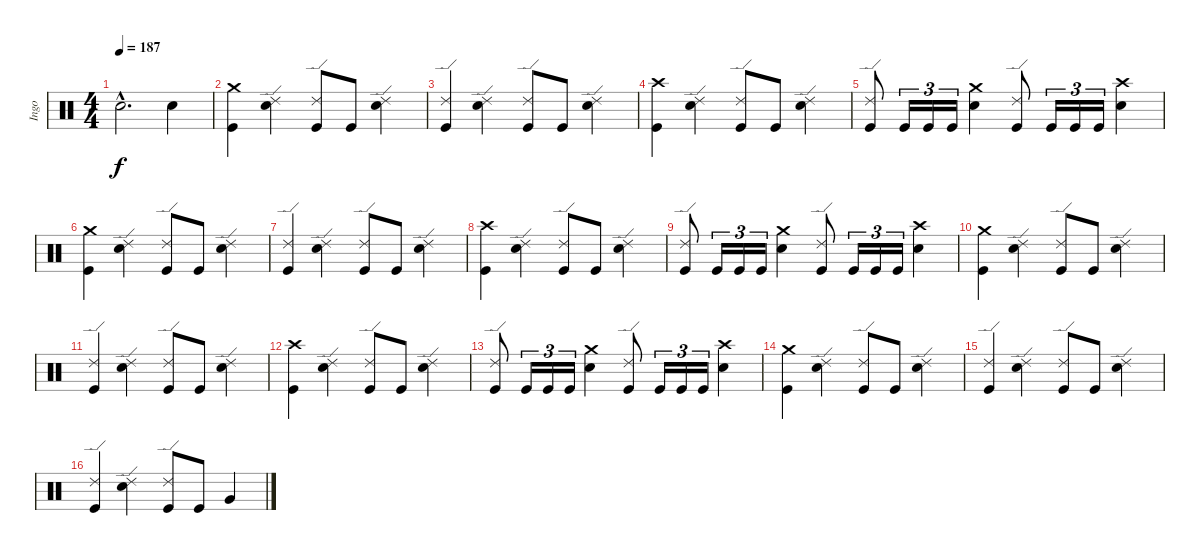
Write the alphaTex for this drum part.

\track ("Ingo" "Ingo") {instrument percussion}
\staff {score}
\articulation defaults
\ts (4 4)
\tempo 187
\clef neutral
\ks c "Snare (hit) 2"{hac}.2{d dy f} "Snare (hit) 2".4
|
("Crash medium (hit)" "Kick (hit)").4 ("Ride (edge) 2" "Snare (hit) 2").4 ("Ride (edge) 2" "Kick (hit)").8 "Kick (hit)".8 ("Ride (edge) 2" "Snare (hit) 2").4 |
("Ride (edge) 2" "Kick (hit)").4 ("Ride (edge) 2" "Snare (hit) 2").4 ("Ride (edge) 2" "Kick (hit)").8 "Kick (hit)".8 ("Ride (edge) 2" "Snare (hit) 2").4 |
("Crash high (hit)" "Kick (hit)").4 ("Ride (edge) 2" "Snare (hit) 2").4 ("Ride (edge) 2" "Kick (hit)").8 "Kick (hit)".8 ("Ride (edge) 2" "Snare (hit) 2").4 |
("Ride (edge) 2" "Kick (hit)").8 "Kick (hit)".16{tu (3 2)} "Kick (hit)".16{tu (3 2)} "Kick (hit)".16{tu (3 2)} ("Crash medium (hit)" "Snare (hit) 2").4 ("Ride (edge) 2" "Kick (hit)").8 "Kick (hit)".16{tu (3 2)} "Kick (hit)".16{tu (3 2)} "Kick (hit)".16{tu (3 2)} ("Crash high (hit)" "Snare (hit) 2").4 |
("Crash medium (hit)" "Kick (hit)").4 ("Ride (edge) 2" "Snare (hit) 2").4 ("Ride (edge) 2" "Kick (hit)").8 "Kick (hit)".8 ("Ride (edge) 2" "Snare (hit) 2").4 |
("Ride (edge) 2" "Kick (hit)").4 ("Ride (edge) 2" "Snare (hit) 2").4 ("Ride (edge) 2" "Kick (hit)").8 "Kick (hit)".8 ("Ride (edge) 2" "Snare (hit) 2").4 |
("Crash high (hit)" "Kick (hit)").4 ("Ride (edge) 2" "Snare (hit) 2").4 ("Ride (edge) 2" "Kick (hit)").8 "Kick (hit)".8 ("Ride (edge) 2" "Snare (hit) 2").4 |
("Ride (edge) 2" "Kick (hit)").8 "Kick (hit)".16{tu (3 2)} "Kick (hit)".16{tu (3 2)} "Kick (hit)".16{tu (3 2)} ("Crash medium (hit)" "Snare (hit) 2").4 ("Ride (edge) 2" "Kick (hit)").8 "Kick (hit)".16{tu (3 2)} "Kick (hit)".16{tu (3 2)} "Kick (hit)".16{tu (3 2)} ("Crash high (hit)" "Snare (hit) 2").4 |
("Crash medium (hit)" "Kick (hit)").4 ("Ride (edge) 2" "Snare (hit) 2").4 ("Ride (edge) 2" "Kick (hit)").8 "Kick (hit)".8 ("Ride (edge) 2" "Snare (hit) 2").4 |
("Ride (edge) 2" "Kick (hit)").4 ("Ride (edge) 2" "Snare (hit) 2").4 ("Ride (edge) 2" "Kick (hit)").8 "Kick (hit)".8 ("Ride (edge) 2" "Snare (hit) 2").4 |
("Crash high (hit)" "Kick (hit)").4 ("Ride (edge) 2" "Snare (hit) 2").4 ("Ride (edge) 2" "Kick (hit)").8 "Kick (hit)".8 ("Ride (edge) 2" "Snare (hit) 2").4 |
("Ride (edge) 2" "Kick (hit)").8 "Kick (hit)".16{tu (3 2)} "Kick (hit)".16{tu (3 2)} "Kick (hit)".16{tu (3 2)} ("Crash medium (hit)" "Snare (hit) 2").4 ("Ride (edge) 2" "Kick (hit)").8 "Kick (hit)".16{tu (3 2)} "Kick (hit)".16{tu (3 2)} "Kick (hit)".16{tu (3 2)} ("Crash high (hit)" "Snare (hit) 2").4 |
("Crash medium (hit)" "Kick (hit)").4 ("Ride (edge) 2" "Snare (hit) 2").4 ("Ride (edge) 2" "Kick (hit)").8 "Kick (hit)".8 ("Ride (edge) 2" "Snare (hit) 2").4 |
("Ride (edge) 2" "Kick (hit)").4 ("Ride (edge) 2" "Snare (hit) 2").4 ("Ride (edge) 2" "Kick (hit)").8 "Kick (hit)".8 ("Ride (edge) 2" "Snare (hit) 2").4 |
("Ride (edge) 2" "Kick (hit)").4 ("Ride (edge) 2" "Snare (hit) 2").4 ("Ride (edge) 2" "Kick (hit)").8 "Kick (hit)".8 "Very Low Tom (hit)".4
